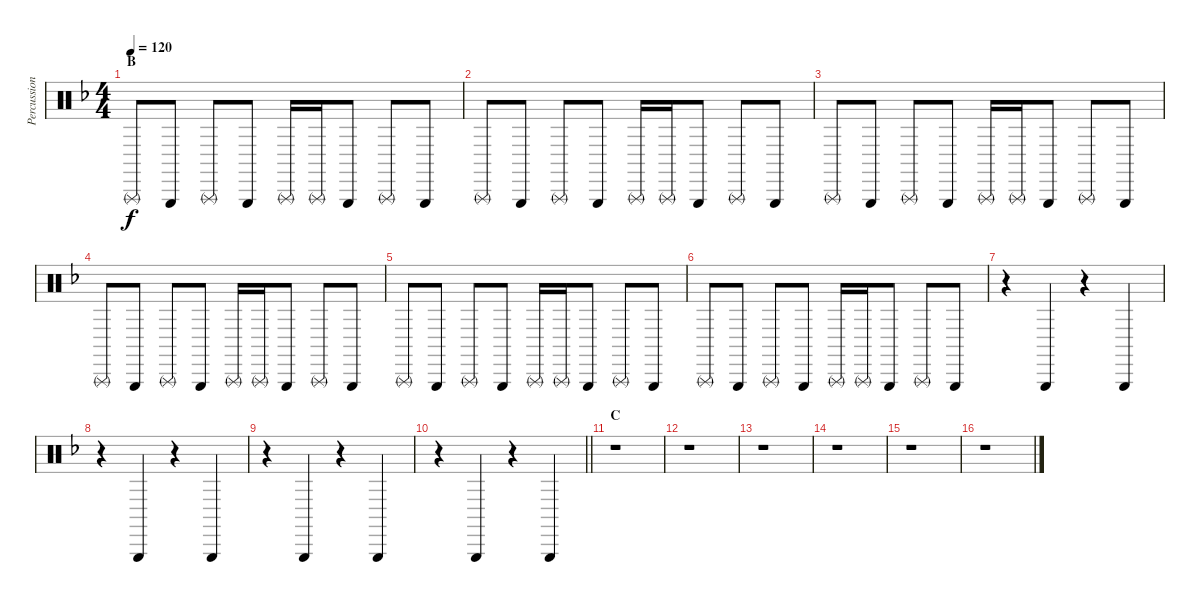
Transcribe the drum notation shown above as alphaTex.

\track ("Percussion" "Percussion") {instrument percussion}
\staff {score}
\articulation defaults
\ts (4 4)
\section ("" "B")
\tempo 120
\clef neutral
\ks f "Triangle (rnute)".8{dy f} "Triangle (hit)".8 "Triangle (rnute)".8 "Triangle (hit)".8 "Triangle (rnute)".16 "Triangle (rnute)".16 "Triangle (hit)".8 "Triangle (rnute)".8 "Triangle (hit)".8
|
"Triangle (rnute)".8 "Triangle (hit)".8 "Triangle (rnute)".8 "Triangle (hit)".8 "Triangle (rnute)".16 "Triangle (rnute)".16 "Triangle (hit)".8 "Triangle (rnute)".8 "Triangle (hit)".8 |
"Triangle (rnute)".8 "Triangle (hit)".8 "Triangle (rnute)".8 "Triangle (hit)".8 "Triangle (rnute)".16 "Triangle (rnute)".16 "Triangle (hit)".8 "Triangle (rnute)".8 "Triangle (hit)".8 |
"Triangle (rnute)".8 "Triangle (hit)".8 "Triangle (rnute)".8 "Triangle (hit)".8 "Triangle (rnute)".16 "Triangle (rnute)".16 "Triangle (hit)".8 "Triangle (rnute)".8 "Triangle (hit)".8 |
"Triangle (rnute)".8 "Triangle (hit)".8 "Triangle (rnute)".8 "Triangle (hit)".8 "Triangle (rnute)".16 "Triangle (rnute)".16 "Triangle (hit)".8 "Triangle (rnute)".8 "Triangle (hit)".8 |
"Triangle (rnute)".8 "Triangle (hit)".8 "Triangle (rnute)".8 "Triangle (hit)".8 "Triangle (rnute)".16 "Triangle (rnute)".16 "Triangle (hit)".8 "Triangle (rnute)".8 "Triangle (hit)".8 |
r.4 "Triangle (hit)".4 r.4 "Triangle (hit)".4 |
r.4 "Triangle (hit)".4 r.4 "Triangle (hit)".4 |
r.4 "Triangle (hit)".4 r.4 "Triangle (hit)".4 |
\barLineRight lightlight
r.4 "Triangle (hit)".4 r.4 "Triangle (hit)".4 |
\section ("" "C")
r.1 |
r.1 |
r.1 |
r.1 |
r.1 |
r.1
